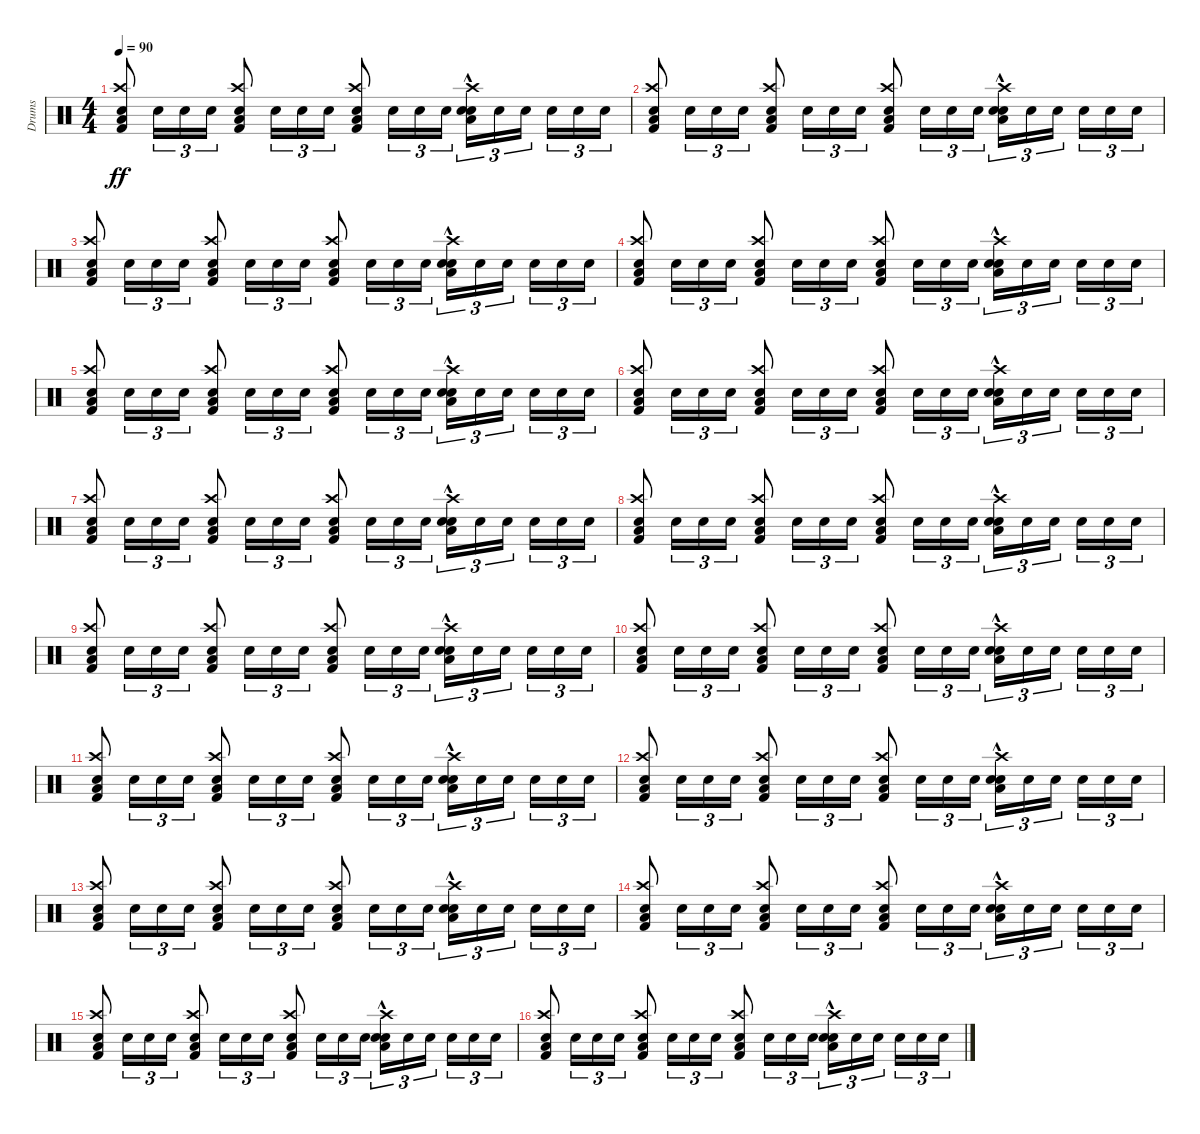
\track ("Drums     " "Drums     ") {instrument percussion}
\staff {score}
\articulation defaults
\ts (4 4)
\tempo 90
\clef neutral
\ks c
("Kick (hit) 2" "Snare (hit) 2" "Crash high (hit)" "Low Floor Tom (hit)").8{dy ff} "Snare (hit) 2".16{tu (3 2)} "Snare (hit) 2".16{tu (3 2)} "Snare (hit) 2".16{tu (3 2)} ("Kick (hit) 2" "Snare (hit) 2" "Crash high (hit)" "Low Floor Tom (hit)").8 "Snare (hit) 2".16{tu (3 2)} "Snare (hit) 2".16{tu (3 2)} "Snare (hit) 2".16{tu (3 2)} ("Kick (hit) 2" "Snare (hit) 2" "Crash high (hit)" "Low Floor Tom (hit)").8 "Snare (hit) 2".16{tu (3 2)} "Snare (hit) 2".16{tu (3 2)} "Snare (hit) 2".16{tu (3 2)} ("Snare (hit) 2"{hac} "Snare (hit) 2" "Crash high (hit)" "Low Floor Tom (hit)").16{tu (3 2)} "Snare (hit) 2".16{tu (3 2)} "Snare (hit) 2".16{tu (3 2)} "Snare (hit) 2".16{tu (3 2)} "Snare (hit) 2".16{tu (3 2)} "Snare (hit) 2".16{tu (3 2)} |
("Kick (hit) 2" "Snare (hit) 2" "Crash high (hit)" "Low Floor Tom (hit)").8 "Snare (hit) 2".16{tu (3 2)} "Snare (hit) 2".16{tu (3 2)} "Snare (hit) 2".16{tu (3 2)} ("Kick (hit) 2" "Snare (hit) 2" "Crash high (hit)" "Low Floor Tom (hit)").8 "Snare (hit) 2".16{tu (3 2)} "Snare (hit) 2".16{tu (3 2)} "Snare (hit) 2".16{tu (3 2)} ("Kick (hit) 2" "Snare (hit) 2" "Crash high (hit)" "Low Floor Tom (hit)").8 "Snare (hit) 2".16{tu (3 2)} "Snare (hit) 2".16{tu (3 2)} "Snare (hit) 2".16{tu (3 2)} ("Snare (hit) 2"{hac} "Snare (hit) 2" "Crash high (hit)" "Low Floor Tom (hit)").16{tu (3 2)} "Snare (hit) 2".16{tu (3 2)} "Snare (hit) 2".16{tu (3 2)} "Snare (hit) 2".16{tu (3 2)} "Snare (hit) 2".16{tu (3 2)} "Snare (hit) 2".16{tu (3 2)} |
("Kick (hit) 2" "Snare (hit) 2" "Crash high (hit)" "Low Floor Tom (hit)").8 "Snare (hit) 2".16{tu (3 2)} "Snare (hit) 2".16{tu (3 2)} "Snare (hit) 2".16{tu (3 2)} ("Kick (hit) 2" "Snare (hit) 2" "Crash high (hit)" "Low Floor Tom (hit)").8 "Snare (hit) 2".16{tu (3 2)} "Snare (hit) 2".16{tu (3 2)} "Snare (hit) 2".16{tu (3 2)} ("Kick (hit) 2" "Snare (hit) 2" "Crash high (hit)" "Low Floor Tom (hit)").8 "Snare (hit) 2".16{tu (3 2)} "Snare (hit) 2".16{tu (3 2)} "Snare (hit) 2".16{tu (3 2)} ("Snare (hit) 2"{hac} "Snare (hit) 2" "Crash high (hit)" "Low Floor Tom (hit)").16{tu (3 2)} "Snare (hit) 2".16{tu (3 2)} "Snare (hit) 2".16{tu (3 2)} "Snare (hit) 2".16{tu (3 2)} "Snare (hit) 2".16{tu (3 2)} "Snare (hit) 2".16{tu (3 2)} |
("Kick (hit) 2" "Snare (hit) 2" "Crash high (hit)" "Low Floor Tom (hit)").8 "Snare (hit) 2".16{tu (3 2)} "Snare (hit) 2".16{tu (3 2)} "Snare (hit) 2".16{tu (3 2)} ("Kick (hit) 2" "Snare (hit) 2" "Crash high (hit)" "Low Floor Tom (hit)").8 "Snare (hit) 2".16{tu (3 2)} "Snare (hit) 2".16{tu (3 2)} "Snare (hit) 2".16{tu (3 2)} ("Kick (hit) 2" "Snare (hit) 2" "Crash high (hit)" "Low Floor Tom (hit)").8 "Snare (hit) 2".16{tu (3 2)} "Snare (hit) 2".16{tu (3 2)} "Snare (hit) 2".16{tu (3 2)} ("Snare (hit) 2"{hac} "Snare (hit) 2" "Crash high (hit)" "Low Floor Tom (hit)").16{tu (3 2)} "Snare (hit) 2".16{tu (3 2)} "Snare (hit) 2".16{tu (3 2)} "Snare (hit) 2".16{tu (3 2)} "Snare (hit) 2".16{tu (3 2)} "Snare (hit) 2".16{tu (3 2)} |
("Kick (hit) 2" "Snare (hit) 2" "Crash high (hit)" "Low Floor Tom (hit)").8 "Snare (hit) 2".16{tu (3 2)} "Snare (hit) 2".16{tu (3 2)} "Snare (hit) 2".16{tu (3 2)} ("Kick (hit) 2" "Snare (hit) 2" "Crash high (hit)" "Low Floor Tom (hit)").8 "Snare (hit) 2".16{tu (3 2)} "Snare (hit) 2".16{tu (3 2)} "Snare (hit) 2".16{tu (3 2)} ("Kick (hit) 2" "Snare (hit) 2" "Crash high (hit)" "Low Floor Tom (hit)").8 "Snare (hit) 2".16{tu (3 2)} "Snare (hit) 2".16{tu (3 2)} "Snare (hit) 2".16{tu (3 2)} ("Snare (hit) 2"{hac} "Snare (hit) 2" "Crash high (hit)" "Low Floor Tom (hit)").16{tu (3 2)} "Snare (hit) 2".16{tu (3 2)} "Snare (hit) 2".16{tu (3 2)} "Snare (hit) 2".16{tu (3 2)} "Snare (hit) 2".16{tu (3 2)} "Snare (hit) 2".16{tu (3 2)} |
("Kick (hit) 2" "Snare (hit) 2" "Crash high (hit)" "Low Floor Tom (hit)").8 "Snare (hit) 2".16{tu (3 2)} "Snare (hit) 2".16{tu (3 2)} "Snare (hit) 2".16{tu (3 2)} ("Kick (hit) 2" "Snare (hit) 2" "Crash high (hit)" "Low Floor Tom (hit)").8 "Snare (hit) 2".16{tu (3 2)} "Snare (hit) 2".16{tu (3 2)} "Snare (hit) 2".16{tu (3 2)} ("Kick (hit) 2" "Snare (hit) 2" "Crash high (hit)" "Low Floor Tom (hit)").8 "Snare (hit) 2".16{tu (3 2)} "Snare (hit) 2".16{tu (3 2)} "Snare (hit) 2".16{tu (3 2)} ("Snare (hit) 2"{hac} "Snare (hit) 2" "Crash high (hit)" "Low Floor Tom (hit)").16{tu (3 2)} "Snare (hit) 2".16{tu (3 2)} "Snare (hit) 2".16{tu (3 2)} "Snare (hit) 2".16{tu (3 2)} "Snare (hit) 2".16{tu (3 2)} "Snare (hit) 2".16{tu (3 2)} |
("Kick (hit) 2" "Snare (hit) 2" "Crash high (hit)" "Low Floor Tom (hit)").8 "Snare (hit) 2".16{tu (3 2)} "Snare (hit) 2".16{tu (3 2)} "Snare (hit) 2".16{tu (3 2)} ("Kick (hit) 2" "Snare (hit) 2" "Crash high (hit)" "Low Floor Tom (hit)").8 "Snare (hit) 2".16{tu (3 2)} "Snare (hit) 2".16{tu (3 2)} "Snare (hit) 2".16{tu (3 2)} ("Kick (hit) 2" "Snare (hit) 2" "Crash high (hit)" "Low Floor Tom (hit)").8 "Snare (hit) 2".16{tu (3 2)} "Snare (hit) 2".16{tu (3 2)} "Snare (hit) 2".16{tu (3 2)} ("Snare (hit) 2"{hac} "Snare (hit) 2" "Crash high (hit)" "Low Floor Tom (hit)").16{tu (3 2)} "Snare (hit) 2".16{tu (3 2)} "Snare (hit) 2".16{tu (3 2)} "Snare (hit) 2".16{tu (3 2)} "Snare (hit) 2".16{tu (3 2)} "Snare (hit) 2".16{tu (3 2)} |
("Kick (hit) 2" "Snare (hit) 2" "Crash high (hit)" "Low Floor Tom (hit)").8 "Snare (hit) 2".16{tu (3 2)} "Snare (hit) 2".16{tu (3 2)} "Snare (hit) 2".16{tu (3 2)} ("Kick (hit) 2" "Snare (hit) 2" "Crash high (hit)" "Low Floor Tom (hit)").8 "Snare (hit) 2".16{tu (3 2)} "Snare (hit) 2".16{tu (3 2)} "Snare (hit) 2".16{tu (3 2)} ("Kick (hit) 2" "Snare (hit) 2" "Crash high (hit)" "Low Floor Tom (hit)").8 "Snare (hit) 2".16{tu (3 2)} "Snare (hit) 2".16{tu (3 2)} "Snare (hit) 2".16{tu (3 2)} ("Snare (hit) 2"{hac} "Snare (hit) 2" "Crash high (hit)" "Low Floor Tom (hit)").16{tu (3 2)} "Snare (hit) 2".16{tu (3 2)} "Snare (hit) 2".16{tu (3 2)} "Snare (hit) 2".16{tu (3 2)} "Snare (hit) 2".16{tu (3 2)} "Snare (hit) 2".16{tu (3 2)} |
("Kick (hit) 2" "Snare (hit) 2" "Crash high (hit)" "Low Floor Tom (hit)").8 "Snare (hit) 2".16{tu (3 2)} "Snare (hit) 2".16{tu (3 2)} "Snare (hit) 2".16{tu (3 2)} ("Kick (hit) 2" "Snare (hit) 2" "Crash high (hit)" "Low Floor Tom (hit)").8 "Snare (hit) 2".16{tu (3 2)} "Snare (hit) 2".16{tu (3 2)} "Snare (hit) 2".16{tu (3 2)} ("Kick (hit) 2" "Snare (hit) 2" "Crash high (hit)" "Low Floor Tom (hit)").8 "Snare (hit) 2".16{tu (3 2)} "Snare (hit) 2".16{tu (3 2)} "Snare (hit) 2".16{tu (3 2)} ("Snare (hit) 2"{hac} "Snare (hit) 2" "Crash high (hit)" "Low Floor Tom (hit)").16{tu (3 2)} "Snare (hit) 2".16{tu (3 2)} "Snare (hit) 2".16{tu (3 2)} "Snare (hit) 2".16{tu (3 2)} "Snare (hit) 2".16{tu (3 2)} "Snare (hit) 2".16{tu (3 2)} |
("Kick (hit) 2" "Snare (hit) 2" "Crash high (hit)" "Low Floor Tom (hit)").8 "Snare (hit) 2".16{tu (3 2)} "Snare (hit) 2".16{tu (3 2)} "Snare (hit) 2".16{tu (3 2)} ("Kick (hit) 2" "Snare (hit) 2" "Crash high (hit)" "Low Floor Tom (hit)").8 "Snare (hit) 2".16{tu (3 2)} "Snare (hit) 2".16{tu (3 2)} "Snare (hit) 2".16{tu (3 2)} ("Kick (hit) 2" "Snare (hit) 2" "Crash high (hit)" "Low Floor Tom (hit)").8 "Snare (hit) 2".16{tu (3 2)} "Snare (hit) 2".16{tu (3 2)} "Snare (hit) 2".16{tu (3 2)} ("Snare (hit) 2"{hac} "Snare (hit) 2" "Crash high (hit)" "Low Floor Tom (hit)").16{tu (3 2)} "Snare (hit) 2".16{tu (3 2)} "Snare (hit) 2".16{tu (3 2)} "Snare (hit) 2".16{tu (3 2)} "Snare (hit) 2".16{tu (3 2)} "Snare (hit) 2".16{tu (3 2)} |
("Kick (hit) 2" "Snare (hit) 2" "Crash high (hit)" "Low Floor Tom (hit)").8 "Snare (hit) 2".16{tu (3 2)} "Snare (hit) 2".16{tu (3 2)} "Snare (hit) 2".16{tu (3 2)} ("Kick (hit) 2" "Snare (hit) 2" "Crash high (hit)" "Low Floor Tom (hit)").8 "Snare (hit) 2".16{tu (3 2)} "Snare (hit) 2".16{tu (3 2)} "Snare (hit) 2".16{tu (3 2)} ("Kick (hit) 2" "Snare (hit) 2" "Crash high (hit)" "Low Floor Tom (hit)").8 "Snare (hit) 2".16{tu (3 2)} "Snare (hit) 2".16{tu (3 2)} "Snare (hit) 2".16{tu (3 2)} ("Snare (hit) 2"{hac} "Snare (hit) 2" "Crash high (hit)" "Low Floor Tom (hit)").16{tu (3 2)} "Snare (hit) 2".16{tu (3 2)} "Snare (hit) 2".16{tu (3 2)} "Snare (hit) 2".16{tu (3 2)} "Snare (hit) 2".16{tu (3 2)} "Snare (hit) 2".16{tu (3 2)} |
("Kick (hit) 2" "Snare (hit) 2" "Crash high (hit)" "Low Floor Tom (hit)").8 "Snare (hit) 2".16{tu (3 2)} "Snare (hit) 2".16{tu (3 2)} "Snare (hit) 2".16{tu (3 2)} ("Kick (hit) 2" "Snare (hit) 2" "Crash high (hit)" "Low Floor Tom (hit)").8 "Snare (hit) 2".16{tu (3 2)} "Snare (hit) 2".16{tu (3 2)} "Snare (hit) 2".16{tu (3 2)} ("Kick (hit) 2" "Snare (hit) 2" "Crash high (hit)" "Low Floor Tom (hit)").8 "Snare (hit) 2".16{tu (3 2)} "Snare (hit) 2".16{tu (3 2)} "Snare (hit) 2".16{tu (3 2)} ("Snare (hit) 2"{hac} "Snare (hit) 2" "Crash high (hit)" "Low Floor Tom (hit)").16{tu (3 2)} "Snare (hit) 2".16{tu (3 2)} "Snare (hit) 2".16{tu (3 2)} "Snare (hit) 2".16{tu (3 2)} "Snare (hit) 2".16{tu (3 2)} "Snare (hit) 2".16{tu (3 2)} |
("Kick (hit) 2" "Snare (hit) 2" "Crash high (hit)" "Low Floor Tom (hit)").8 "Snare (hit) 2".16{tu (3 2)} "Snare (hit) 2".16{tu (3 2)} "Snare (hit) 2".16{tu (3 2)} ("Kick (hit) 2" "Snare (hit) 2" "Crash high (hit)" "Low Floor Tom (hit)").8 "Snare (hit) 2".16{tu (3 2)} "Snare (hit) 2".16{tu (3 2)} "Snare (hit) 2".16{tu (3 2)} ("Kick (hit) 2" "Snare (hit) 2" "Crash high (hit)" "Low Floor Tom (hit)").8 "Snare (hit) 2".16{tu (3 2)} "Snare (hit) 2".16{tu (3 2)} "Snare (hit) 2".16{tu (3 2)} ("Snare (hit) 2"{hac} "Snare (hit) 2" "Crash high (hit)" "Low Floor Tom (hit)").16{tu (3 2)} "Snare (hit) 2".16{tu (3 2)} "Snare (hit) 2".16{tu (3 2)} "Snare (hit) 2".16{tu (3 2)} "Snare (hit) 2".16{tu (3 2)} "Snare (hit) 2".16{tu (3 2)} |
("Kick (hit) 2" "Snare (hit) 2" "Crash high (hit)" "Low Floor Tom (hit)").8 "Snare (hit) 2".16{tu (3 2)} "Snare (hit) 2".16{tu (3 2)} "Snare (hit) 2".16{tu (3 2)} ("Kick (hit) 2" "Snare (hit) 2" "Crash high (hit)" "Low Floor Tom (hit)").8 "Snare (hit) 2".16{tu (3 2)} "Snare (hit) 2".16{tu (3 2)} "Snare (hit) 2".16{tu (3 2)} ("Kick (hit) 2" "Snare (hit) 2" "Crash high (hit)" "Low Floor Tom (hit)").8 "Snare (hit) 2".16{tu (3 2)} "Snare (hit) 2".16{tu (3 2)} "Snare (hit) 2".16{tu (3 2)} ("Snare (hit) 2"{hac} "Snare (hit) 2" "Crash high (hit)" "Low Floor Tom (hit)").16{tu (3 2)} "Snare (hit) 2".16{tu (3 2)} "Snare (hit) 2".16{tu (3 2)} "Snare (hit) 2".16{tu (3 2)} "Snare (hit) 2".16{tu (3 2)} "Snare (hit) 2".16{tu (3 2)} |
("Kick (hit) 2" "Snare (hit) 2" "Crash high (hit)" "Low Floor Tom (hit)").8 "Snare (hit) 2".16{tu (3 2)} "Snare (hit) 2".16{tu (3 2)} "Snare (hit) 2".16{tu (3 2)} ("Kick (hit) 2" "Snare (hit) 2" "Crash high (hit)" "Low Floor Tom (hit)").8 "Snare (hit) 2".16{tu (3 2)} "Snare (hit) 2".16{tu (3 2)} "Snare (hit) 2".16{tu (3 2)} ("Kick (hit) 2" "Snare (hit) 2" "Crash high (hit)" "Low Floor Tom (hit)").8 "Snare (hit) 2".16{tu (3 2)} "Snare (hit) 2".16{tu (3 2)} "Snare (hit) 2".16{tu (3 2)} ("Snare (hit) 2"{hac} "Snare (hit) 2" "Crash high (hit)" "Low Floor Tom (hit)").16{tu (3 2)} "Snare (hit) 2".16{tu (3 2)} "Snare (hit) 2".16{tu (3 2)} "Snare (hit) 2".16{tu (3 2)} "Snare (hit) 2".16{tu (3 2)} "Snare (hit) 2".16{tu (3 2)} |
("Kick (hit) 2" "Snare (hit) 2" "Crash high (hit)" "Low Floor Tom (hit)").8 "Snare (hit) 2".16{tu (3 2)} "Snare (hit) 2".16{tu (3 2)} "Snare (hit) 2".16{tu (3 2)} ("Kick (hit) 2" "Snare (hit) 2" "Crash high (hit)" "Low Floor Tom (hit)").8 "Snare (hit) 2".16{tu (3 2)} "Snare (hit) 2".16{tu (3 2)} "Snare (hit) 2".16{tu (3 2)} ("Kick (hit) 2" "Snare (hit) 2" "Crash high (hit)" "Low Floor Tom (hit)").8 "Snare (hit) 2".16{tu (3 2)} "Snare (hit) 2".16{tu (3 2)} "Snare (hit) 2".16{tu (3 2)} ("Snare (hit) 2"{hac} "Snare (hit) 2" "Crash high (hit)" "Low Floor Tom (hit)").16{tu (3 2)} "Snare (hit) 2".16{tu (3 2)} "Snare (hit) 2".16{tu (3 2)} "Snare (hit) 2".16{tu (3 2)} "Snare (hit) 2".16{tu (3 2)} "Snare (hit) 2".16{tu (3 2)}
